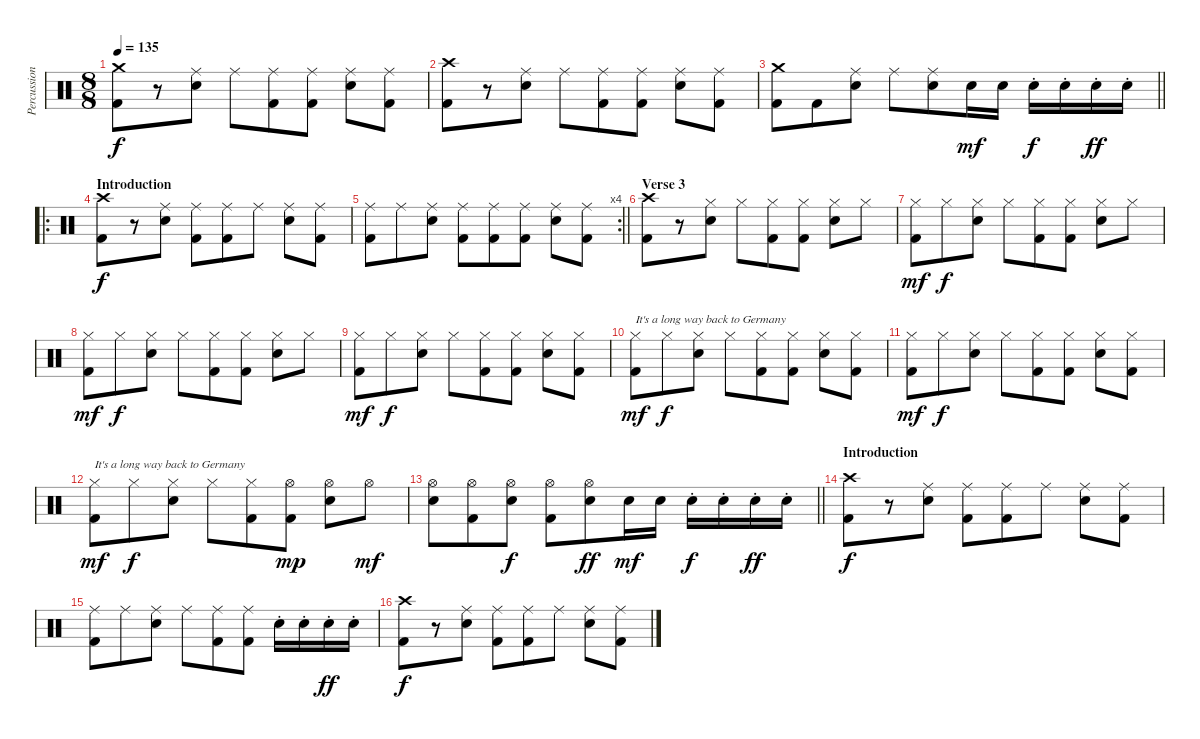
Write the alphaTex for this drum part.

\track ("Percussion" "Percussion") {instrument percussion}
\staff {score}
\articulation defaults
\ts (8 8)
\tempo 135
\clef neutral
\ks c
("Crash medium (hit)" "Kick (hit) 2").8{dy f} r.8 ("Ride (middle)" "Snare (hit) 2").8 "Ride (middle)".8 ("Ride (middle)" "Kick (hit) 2").8 ("Ride (middle)" "Kick (hit) 2").8 ("Ride (middle)" "Snare (hit) 2").8 ("Ride (middle)" "Kick (hit) 2").8 |
("Crash high (hit)" "Kick (hit) 2").8 r.8 ("Ride (middle)" "Snare (hit) 2").8 "Ride (middle)".8 ("Ride (middle)" "Kick (hit) 2").8 ("Ride (middle)" "Kick (hit) 2").8 ("Ride (middle)" "Snare (hit) 2").8 ("Ride (middle)" "Kick (hit) 2").8 |
\barLineRight lightlight
("Crash medium (hit)" "Kick (hit) 2").8 "Kick (hit) 2".8 ("Ride (middle)" "Snare (hit) 2").8 "Ride (middle)".8 ("Ride (middle)" "Snare (hit) 2").8 "Snare (hit) 2".16{dy mf} "Snare (hit) 2".16 "Snare (hit) 2"{st}.16{dy f} "Snare (hit) 2"{st}.16 "Snare (hit) 2"{st}.16{dy ff} "Snare (hit) 2"{st}.16 |
\ro
\section ("" "Introduction")
("Crash high (hit)" "Kick (hit) 2").8{dy f} r.8 ("Ride (middle)" "Snare (hit) 2").8 ("Ride (middle)" "Kick (hit) 2").8 ("Ride (middle)" "Kick (hit) 2").8 "Ride (middle)".8 ("Ride (middle)" "Snare (hit) 2").8 ("Ride (middle)" "Kick (hit) 2").8 |
\rc 4
\barLineRight lightlight
("Ride (middle)" "Kick (hit) 2").8 "Ride (middle)".8 ("Ride (middle)" "Snare (hit) 2").8 ("Ride (middle)" "Kick (hit) 2").8 ("Ride (middle)" "Kick (hit) 2").8 ("Ride (middle)" "Kick (hit) 2").8 ("Ride (middle)" "Snare (hit) 2").8 ("Ride (middle)" "Kick (hit) 2").8 |
\section ("" "Verse 3")
("Crash high (hit)" "Kick (hit) 2").8 r.8 ("Hi-Hat (closed)" "Snare (hit) 2").8 "Hi-Hat (closed)".8 ("Hi-Hat (closed)" "Kick (hit) 2").8 ("Hi-Hat (closed)" "Kick (hit) 2").8 ("Hi-Hat (closed)" "Snare (hit) 2").8 "Hi-Hat (closed)".8 |
("Hi-Hat (closed)" "Kick (hit) 2").8{dy mf} "Hi-Hat (closed)".8{dy f} ("Hi-Hat (closed)" "Snare (hit) 2").8 "Hi-Hat (closed)".8 ("Hi-Hat (closed)" "Kick (hit) 2").8 ("Hi-Hat (closed)" "Kick (hit) 2").8 ("Hi-Hat (closed)" "Snare (hit) 2").8 "Hi-Hat (closed)".8 |
("Hi-Hat (closed)" "Kick (hit) 2").8{dy mf} "Hi-Hat (closed)".8{dy f} ("Hi-Hat (closed)" "Snare (hit) 2").8 "Hi-Hat (closed)".8 ("Hi-Hat (closed)" "Kick (hit) 2").8 ("Hi-Hat (closed)" "Kick (hit) 2").8 ("Hi-Hat (closed)" "Snare (hit) 2").8 "Hi-Hat (closed)".8 |
("Hi-Hat (closed)" "Kick (hit) 2").8{dy mf} "Hi-Hat (closed)".8{dy f} ("Hi-Hat (closed)" "Snare (hit) 2").8 "Hi-Hat (closed)".8 ("Hi-Hat (closed)" "Kick (hit) 2").8 ("Hi-Hat (closed)" "Kick (hit) 2").8 ("Hi-Hat (closed)" "Snare (hit) 2").8 ("Hi-Hat (closed)" "Kick (hit) 2").8 |
("Hi-Hat (closed)" "Kick (hit) 2").8{txt "It's a long way back to Germany" dy mf} "Hi-Hat (closed)".8{dy f} ("Hi-Hat (closed)" "Snare (hit) 2").8 "Hi-Hat (closed)".8 ("Hi-Hat (closed)" "Kick (hit) 2").8 ("Hi-Hat (closed)" "Kick (hit) 2").8 ("Hi-Hat (closed)" "Snare (hit) 2").8 ("Hi-Hat (closed)" "Kick (hit) 2").8 |
("Hi-Hat (closed)" "Kick (hit) 2").8{dy mf} "Hi-Hat (closed)".8{dy f} ("Hi-Hat (closed)" "Snare (hit) 2").8 "Hi-Hat (closed)".8 ("Hi-Hat (closed)" "Kick (hit) 2").8 ("Hi-Hat (closed)" "Kick (hit) 2").8 ("Hi-Hat (closed)" "Snare (hit) 2").8 ("Hi-Hat (closed)" "Kick (hit) 2").8 |
("Hi-Hat (closed)" "Kick (hit) 2").8{txt "It's a long way back to Germany" dy mf} "Hi-Hat (closed)".8{dy f} ("Hi-Hat (closed)" "Snare (hit) 2").8 "Hi-Hat (closed)".8 ("Hi-Hat (closed)" "Kick (hit) 2").8 ("Hi-Hat (open)" "Kick (hit) 2").8{dy mp} ("Hi-Hat (open)" "Snare (hit) 2").8 "Hi-Hat (open)".8{dy mf} |
\barLineRight lightlight
("Hi-Hat (open)" "Snare (hit) 2").8 ("Hi-Hat (open)" "Kick (hit) 2").8 ("Hi-Hat (open)" "Snare (hit) 2").8{dy f} ("Hi-Hat (open)" "Kick (hit) 2").8 ("Hi-Hat (open)" "Snare (hit) 2").8{dy ff} "Snare (hit) 2".16{dy mf} "Snare (hit) 2".16 "Snare (hit) 2"{st}.16{dy f} "Snare (hit) 2"{st}.16 "Snare (hit) 2"{st}.16{dy ff} "Snare (hit) 2"{st}.16 |
\section ("" "Introduction")
("Crash high (hit)" "Kick (hit) 2").8{dy f} r.8 ("Ride (middle)" "Snare (hit) 2").8 ("Ride (middle)" "Kick (hit) 2").8 ("Ride (middle)" "Kick (hit) 2").8 "Ride (middle)".8 ("Ride (middle)" "Snare (hit) 2").8 ("Ride (middle)" "Kick (hit) 2").8 |
("Ride (middle)" "Kick (hit) 2").8 "Ride (middle)".8 ("Ride (middle)" "Snare (hit) 2").8 "Ride (middle)".8 ("Ride (middle)" "Kick (hit) 2").8 ("Ride (middle)" "Kick (hit) 2").8 "Snare (hit) 2"{st}.16 "Snare (hit) 2"{st}.16 "Snare (hit) 2"{st}.16{dy ff} "Snare (hit) 2"{st}.16 |
("Crash high (hit)" "Kick (hit) 2").8{dy f} r.8 ("Ride (middle)" "Snare (hit) 2").8 ("Ride (middle)" "Kick (hit) 2").8 ("Ride (middle)" "Kick (hit) 2").8 "Ride (middle)".8 ("Ride (middle)" "Snare (hit) 2").8 ("Ride (middle)" "Kick (hit) 2").8
